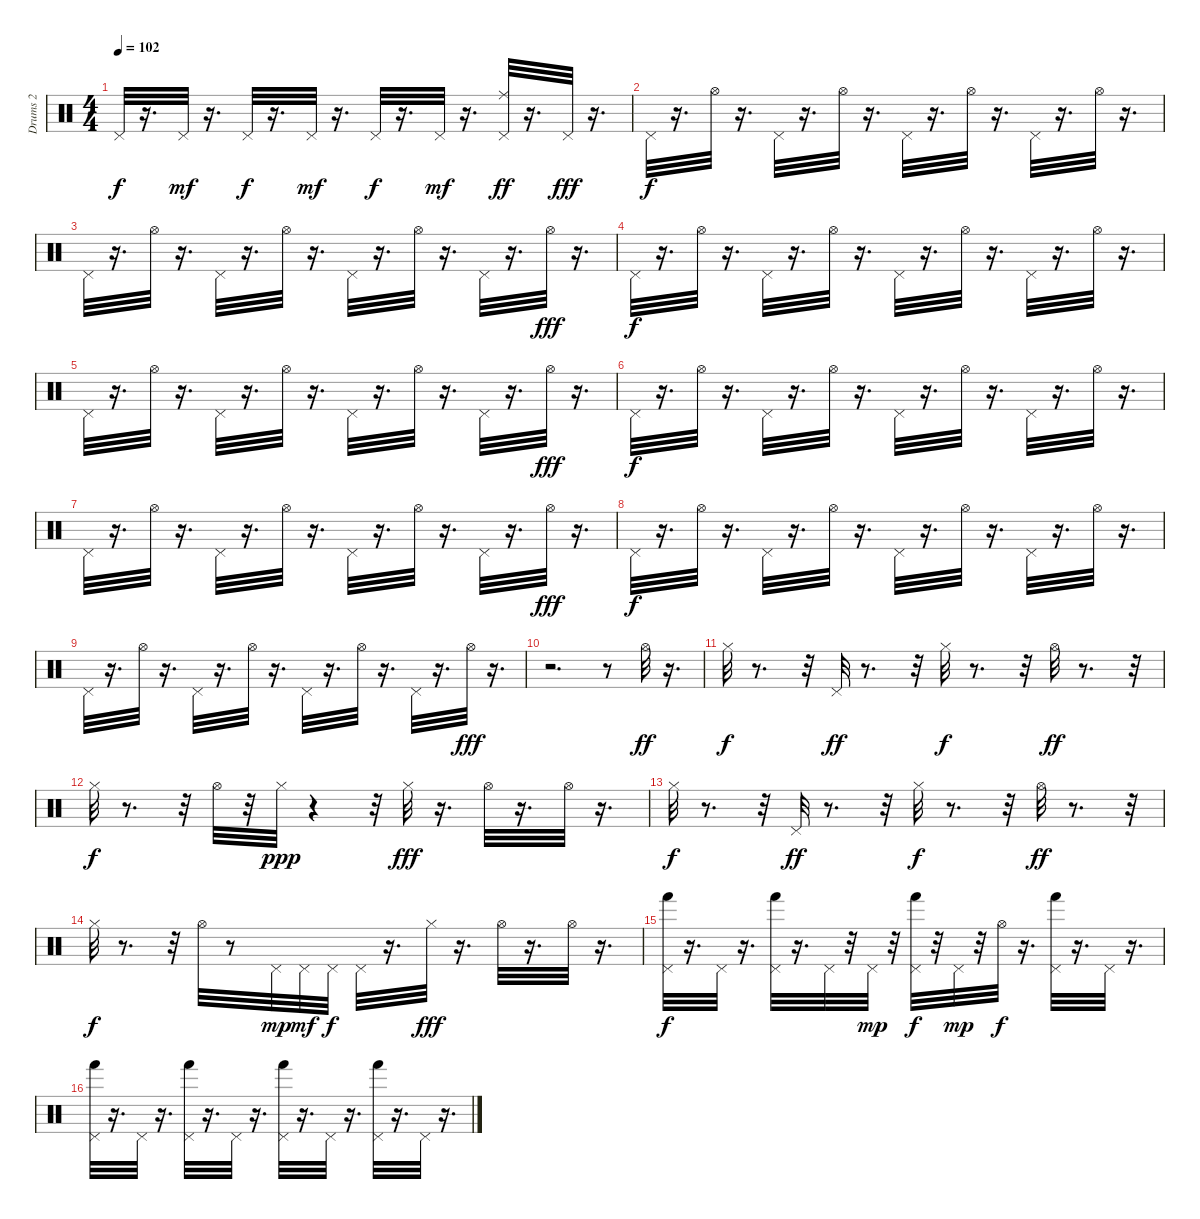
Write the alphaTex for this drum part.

\track ("Drums 2" "Drums 2") {instrument percussion}
\staff {score}
\articulation defaults
\ts (4 4)
\tempo 102
\clef neutral
\ks c "Pedal Hi-Hat (hit)".32{dy f}
r.16{d} "Pedal Hi-Hat (hit)".32{dy mf} r.16{d} "Pedal Hi-Hat (hit)".32{dy f} r.16{d} "Pedal Hi-Hat (hit)".32{dy mf} r.16{d} "Pedal Hi-Hat (hit)".32{dy f} r.16{d} "Pedal Hi-Hat (hit)".32{dy mf} r.16{d} ("Ride (middle)" "Pedal Hi-Hat (hit)").32{dy ff} r.16{d} "Pedal Hi-Hat (hit)".32{dy fff} r.16{d} |
"Pedal Hi-Hat (hit)".32{dy f} r.16{d} "Hi-Hat (open)".32 r.16{d} "Pedal Hi-Hat (hit)".32 r.16{d} "Hi-Hat (open)".32 r.16{d} "Pedal Hi-Hat (hit)".32 r.16{d} "Hi-Hat (open)".32 r.16{d} "Pedal Hi-Hat (hit)".32 r.16{d} "Hi-Hat (open)".32 r.16{d} |
"Pedal Hi-Hat (hit)".32 r.16{d} "Hi-Hat (open)".32 r.16{d} "Pedal Hi-Hat (hit)".32 r.16{d} "Hi-Hat (open)".32 r.16{d} "Pedal Hi-Hat (hit)".32 r.16{d} "Hi-Hat (open)".32 r.16{d} "Pedal Hi-Hat (hit)".32 r.16{d} "Hi-Hat (open)".32{dy fff} r.16{d} |
"Pedal Hi-Hat (hit)".32{dy f} r.16{d} "Hi-Hat (open)".32 r.16{d} "Pedal Hi-Hat (hit)".32 r.16{d} "Hi-Hat (open)".32 r.16{d} "Pedal Hi-Hat (hit)".32 r.16{d} "Hi-Hat (open)".32 r.16{d} "Pedal Hi-Hat (hit)".32 r.16{d} "Hi-Hat (open)".32 r.16{d} |
"Pedal Hi-Hat (hit)".32 r.16{d} "Hi-Hat (open)".32 r.16{d} "Pedal Hi-Hat (hit)".32 r.16{d} "Hi-Hat (open)".32 r.16{d} "Pedal Hi-Hat (hit)".32 r.16{d} "Hi-Hat (open)".32 r.16{d} "Pedal Hi-Hat (hit)".32 r.16{d} "Hi-Hat (open)".32{dy fff} r.16{d} |
"Pedal Hi-Hat (hit)".32{dy f} r.16{d} "Hi-Hat (open)".32 r.16{d} "Pedal Hi-Hat (hit)".32 r.16{d} "Hi-Hat (open)".32 r.16{d} "Pedal Hi-Hat (hit)".32 r.16{d} "Hi-Hat (open)".32 r.16{d} "Pedal Hi-Hat (hit)".32 r.16{d} "Hi-Hat (open)".32 r.16{d} |
"Pedal Hi-Hat (hit)".32 r.16{d} "Hi-Hat (open)".32 r.16{d} "Pedal Hi-Hat (hit)".32 r.16{d} "Hi-Hat (open)".32 r.16{d} "Pedal Hi-Hat (hit)".32 r.16{d} "Hi-Hat (open)".32 r.16{d} "Pedal Hi-Hat (hit)".32 r.16{d} "Hi-Hat (open)".32{dy fff} r.16{d} |
"Pedal Hi-Hat (hit)".32{dy f} r.16{d} "Hi-Hat (open)".32 r.16{d} "Pedal Hi-Hat (hit)".32 r.16{d} "Hi-Hat (open)".32 r.16{d} "Pedal Hi-Hat (hit)".32 r.16{d} "Hi-Hat (open)".32 r.16{d} "Pedal Hi-Hat (hit)".32 r.16{d} "Hi-Hat (open)".32 r.16{d} |
"Pedal Hi-Hat (hit)".32 r.16{d} "Hi-Hat (open)".32 r.16{d} "Pedal Hi-Hat (hit)".32 r.16{d} "Hi-Hat (open)".32 r.16{d} "Pedal Hi-Hat (hit)".32 r.16{d} "Hi-Hat (open)".32 r.16{d} "Pedal Hi-Hat (hit)".32 r.16{d} "Hi-Hat (open)".32{dy fff} r.16{d} |
r.2{d} r.8 "Hi-Hat (open)".32{dy ff} r.16{d} |
"Hi-Hat (closed)".32{dy f} r.8{d} r.32 "Pedal Hi-Hat (hit)".32{dy ff} r.8{d} r.32 "Hi-Hat (closed)".32{dy f} r.8{d} r.32 "Hi-Hat (open)".32{dy ff} r.8{d} r.32 |
"Hi-Hat (closed)".32{dy f} r.8{d} r.32 "Hi-Hat (open)".32 r.32 "Hi-Hat (closed)".32{dy ppp} r.4 r.32 "Hi-Hat (closed)".32{dy fff} r.16{d} "Hi-Hat (open)".32 r.16{d} "Hi-Hat (open)".32 r.16{d} |
"Hi-Hat (closed)".32{dy f} r.8{d} r.32 "Pedal Hi-Hat (hit)".32{dy ff} r.8{d} r.32 "Hi-Hat (closed)".32{dy f} r.8{d} r.32 "Hi-Hat (open)".32{dy ff} r.8{d} r.32 |
"Hi-Hat (closed)".32{dy f} r.8{d} r.32 "Hi-Hat (open)".32 r.8 "Pedal Hi-Hat (hit)".32{dy mp} "Pedal Hi-Hat (hit)".32{dy mf} "Pedal Hi-Hat (hit)".32{dy f} "Pedal Hi-Hat (hit)".32 r.16{d} "Hi-Hat (closed)".32{dy fff} r.16{d} "Hi-Hat (open)".32 r.16{d} "Hi-Hat (open)".32 r.16{d} |
("Hand (hit)" "Pedal Hi-Hat (hit)").32{dy f} r.16{d} "Pedal Hi-Hat (hit)".32 r.16{d} ("Hand (hit)" "Pedal Hi-Hat (hit)").32 r.16{d} "Pedal Hi-Hat (hit)".32 r.32 "Pedal Hi-Hat (hit)".32{dy mp} r.32 ("Hand (hit)" "Pedal Hi-Hat (hit)").32{dy f} r.32 "Pedal Hi-Hat (hit)".32{dy mp} r.32 "Hi-Hat (open)".32{dy f} r.16{d} ("Hand (hit)" "Pedal Hi-Hat (hit)").32 r.16{d} "Pedal Hi-Hat (hit)".32 r.16{d} |
("Hand (hit)" "Pedal Hi-Hat (hit)").32 r.16{d} "Pedal Hi-Hat (hit)".32 r.16{d} ("Hand (hit)" "Pedal Hi-Hat (hit)").32 r.16{d} "Pedal Hi-Hat (hit)".32 r.16{d} ("Hand (hit)" "Pedal Hi-Hat (hit)").32 r.16{d} "Pedal Hi-Hat (hit)".32 r.16{d} ("Pedal Hi-Hat (hit)" "Hand (hit)").32 r.16{d} "Pedal Hi-Hat (hit)".32 r.16{d}
